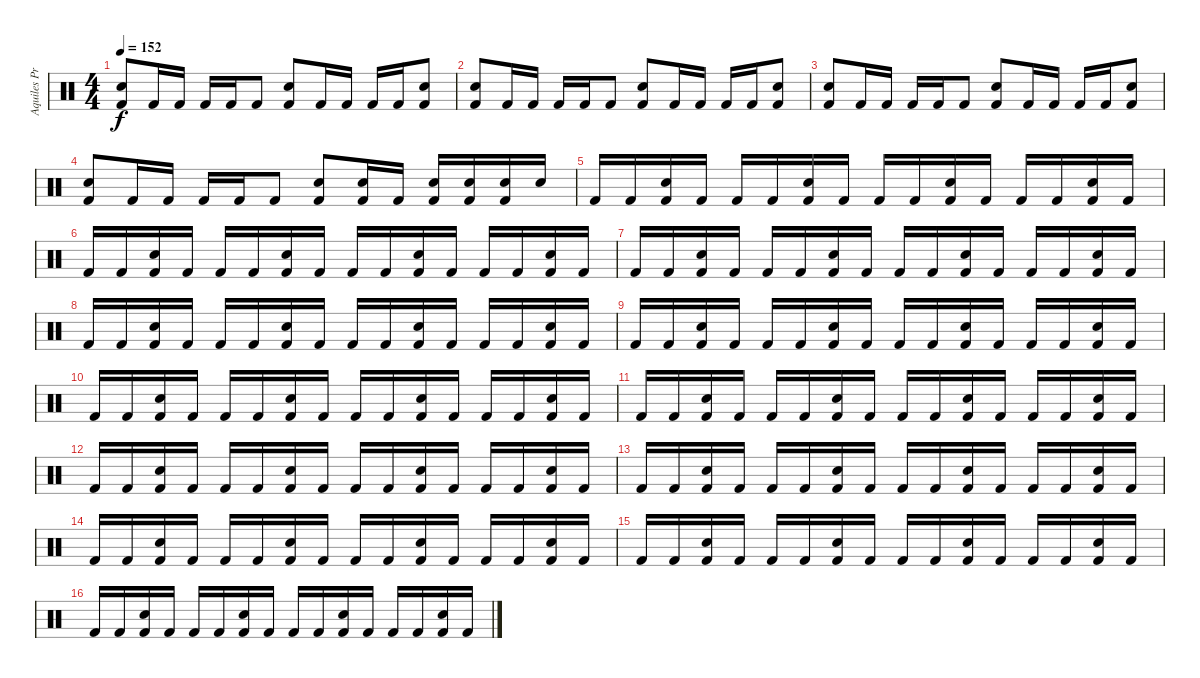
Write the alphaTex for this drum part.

\track ("Aquiles Priester" "Aquiles Pr") {instrument percussion}
\staff {score}
\articulation defaults
\ts (4 4)
\tempo 152
\clef neutral
\ks c
("Electric Snare (hit)" "Kick (hit) 2").8{dy f} "Kick (hit) 2".16 "Kick (hit) 2".16 "Kick (hit) 2".16 "Kick (hit) 2".16 "Kick (hit) 2".8 ("Electric Snare (hit)" "Kick (hit) 2").8 "Kick (hit) 2".16 "Kick (hit) 2".16 "Kick (hit) 2".16 "Kick (hit) 2".16 ("Electric Snare (hit)" "Kick (hit) 2").8 |
("Electric Snare (hit)" "Kick (hit) 2").8 "Kick (hit) 2".16 "Kick (hit) 2".16 "Kick (hit) 2".16 "Kick (hit) 2".16 "Kick (hit) 2".8 ("Electric Snare (hit)" "Kick (hit) 2").8 "Kick (hit) 2".16 "Kick (hit) 2".16 "Kick (hit) 2".16 "Kick (hit) 2".16 ("Electric Snare (hit)" "Kick (hit) 2").8 |
("Electric Snare (hit)" "Kick (hit) 2").8 "Kick (hit) 2".16 "Kick (hit) 2".16 "Kick (hit) 2".16 "Kick (hit) 2".16 "Kick (hit) 2".8 ("Electric Snare (hit)" "Kick (hit) 2").8 "Kick (hit) 2".16 "Kick (hit) 2".16 "Kick (hit) 2".16 "Kick (hit) 2".16 ("Electric Snare (hit)" "Kick (hit) 2").8 |
("Electric Snare (hit)" "Kick (hit) 2").8 "Kick (hit) 2".16 "Kick (hit) 2".16 "Kick (hit) 2".16 "Kick (hit) 2".16 "Kick (hit) 2".8 ("Electric Snare (hit)" "Kick (hit) 2").8 ("Electric Snare (hit)" "Kick (hit) 2").16 "Kick (hit) 2".16 ("Electric Snare (hit)" "Kick (hit) 2").16 ("Electric Snare (hit)" "Kick (hit) 2").16 ("Electric Snare (hit)" "Kick (hit) 2").16 "Electric Snare (hit)".16 |
"Kick (hit) 2".16 "Kick (hit) 2".16 ("Electric Snare (hit)" "Kick (hit) 2").16 "Kick (hit) 2".16 "Kick (hit) 2".16 "Kick (hit) 2".16 ("Electric Snare (hit)" "Kick (hit) 2").16 "Kick (hit) 2".16 "Kick (hit) 2".16 "Kick (hit) 2".16 ("Electric Snare (hit)" "Kick (hit) 2").16 "Kick (hit) 2".16 "Kick (hit) 2".16 "Kick (hit) 2".16 ("Electric Snare (hit)" "Kick (hit) 2").16 "Kick (hit) 2".16 |
"Kick (hit) 2".16 "Kick (hit) 2".16 ("Electric Snare (hit)" "Kick (hit) 2").16 "Kick (hit) 2".16 "Kick (hit) 2".16 "Kick (hit) 2".16 ("Electric Snare (hit)" "Kick (hit) 2").16 "Kick (hit) 2".16 "Kick (hit) 2".16 "Kick (hit) 2".16 ("Electric Snare (hit)" "Kick (hit) 2").16 "Kick (hit) 2".16 "Kick (hit) 2".16 "Kick (hit) 2".16 ("Electric Snare (hit)" "Kick (hit) 2").16 "Kick (hit) 2".16 |
"Kick (hit) 2".16 "Kick (hit) 2".16 ("Electric Snare (hit)" "Kick (hit) 2").16 "Kick (hit) 2".16 "Kick (hit) 2".16 "Kick (hit) 2".16 ("Electric Snare (hit)" "Kick (hit) 2").16 "Kick (hit) 2".16 "Kick (hit) 2".16 "Kick (hit) 2".16 ("Electric Snare (hit)" "Kick (hit) 2").16 "Kick (hit) 2".16 "Kick (hit) 2".16 "Kick (hit) 2".16 ("Electric Snare (hit)" "Kick (hit) 2").16 "Kick (hit) 2".16 |
"Kick (hit) 2".16 "Kick (hit) 2".16 ("Electric Snare (hit)" "Kick (hit) 2").16 "Kick (hit) 2".16 "Kick (hit) 2".16 "Kick (hit) 2".16 ("Electric Snare (hit)" "Kick (hit) 2").16 "Kick (hit) 2".16 "Kick (hit) 2".16 "Kick (hit) 2".16 ("Electric Snare (hit)" "Kick (hit) 2").16 "Kick (hit) 2".16 "Kick (hit) 2".16 "Kick (hit) 2".16 ("Electric Snare (hit)" "Kick (hit) 2").16 "Kick (hit) 2".16 |
"Kick (hit) 2".16 "Kick (hit) 2".16 ("Electric Snare (hit)" "Kick (hit) 2").16 "Kick (hit) 2".16 "Kick (hit) 2".16 "Kick (hit) 2".16 ("Electric Snare (hit)" "Kick (hit) 2").16 "Kick (hit) 2".16 "Kick (hit) 2".16 "Kick (hit) 2".16 ("Electric Snare (hit)" "Kick (hit) 2").16 "Kick (hit) 2".16 "Kick (hit) 2".16 "Kick (hit) 2".16 ("Electric Snare (hit)" "Kick (hit) 2").16 "Kick (hit) 2".16 |
"Kick (hit) 2".16 "Kick (hit) 2".16 ("Electric Snare (hit)" "Kick (hit) 2").16 "Kick (hit) 2".16 "Kick (hit) 2".16 "Kick (hit) 2".16 ("Electric Snare (hit)" "Kick (hit) 2").16 "Kick (hit) 2".16 "Kick (hit) 2".16 "Kick (hit) 2".16 ("Electric Snare (hit)" "Kick (hit) 2").16 "Kick (hit) 2".16 "Kick (hit) 2".16 "Kick (hit) 2".16 ("Electric Snare (hit)" "Kick (hit) 2").16 "Kick (hit) 2".16 |
"Kick (hit) 2".16 "Kick (hit) 2".16 ("Electric Snare (hit)" "Kick (hit) 2").16 "Kick (hit) 2".16 "Kick (hit) 2".16 "Kick (hit) 2".16 ("Electric Snare (hit)" "Kick (hit) 2").16 "Kick (hit) 2".16 "Kick (hit) 2".16 "Kick (hit) 2".16 ("Electric Snare (hit)" "Kick (hit) 2").16 "Kick (hit) 2".16 "Kick (hit) 2".16 "Kick (hit) 2".16 ("Electric Snare (hit)" "Kick (hit) 2").16 "Kick (hit) 2".16 |
"Kick (hit) 2".16 "Kick (hit) 2".16 ("Electric Snare (hit)" "Kick (hit) 2").16 "Kick (hit) 2".16 "Kick (hit) 2".16 "Kick (hit) 2".16 ("Electric Snare (hit)" "Kick (hit) 2").16 "Kick (hit) 2".16 "Kick (hit) 2".16 "Kick (hit) 2".16 ("Electric Snare (hit)" "Kick (hit) 2").16 "Kick (hit) 2".16 "Kick (hit) 2".16 "Kick (hit) 2".16 ("Electric Snare (hit)" "Kick (hit) 2").16 "Kick (hit) 2".16 |
"Kick (hit) 2".16 "Kick (hit) 2".16 ("Electric Snare (hit)" "Kick (hit) 2").16 "Kick (hit) 2".16 "Kick (hit) 2".16 "Kick (hit) 2".16 ("Electric Snare (hit)" "Kick (hit) 2").16 "Kick (hit) 2".16 "Kick (hit) 2".16 "Kick (hit) 2".16 ("Electric Snare (hit)" "Kick (hit) 2").16 "Kick (hit) 2".16 "Kick (hit) 2".16 "Kick (hit) 2".16 ("Electric Snare (hit)" "Kick (hit) 2").16 "Kick (hit) 2".16 |
"Kick (hit) 2".16 "Kick (hit) 2".16 ("Electric Snare (hit)" "Kick (hit) 2").16 "Kick (hit) 2".16 "Kick (hit) 2".16 "Kick (hit) 2".16 ("Electric Snare (hit)" "Kick (hit) 2").16 "Kick (hit) 2".16 "Kick (hit) 2".16 "Kick (hit) 2".16 ("Electric Snare (hit)" "Kick (hit) 2").16 "Kick (hit) 2".16 "Kick (hit) 2".16 "Kick (hit) 2".16 ("Electric Snare (hit)" "Kick (hit) 2").16 "Kick (hit) 2".16 |
"Kick (hit) 2".16 "Kick (hit) 2".16 ("Electric Snare (hit)" "Kick (hit) 2").16 "Kick (hit) 2".16 "Kick (hit) 2".16 "Kick (hit) 2".16 ("Electric Snare (hit)" "Kick (hit) 2").16 "Kick (hit) 2".16 "Kick (hit) 2".16 "Kick (hit) 2".16 ("Electric Snare (hit)" "Kick (hit) 2").16 "Kick (hit) 2".16 "Kick (hit) 2".16 "Kick (hit) 2".16 ("Electric Snare (hit)" "Kick (hit) 2").16 "Kick (hit) 2".16 |
"Kick (hit) 2".16 "Kick (hit) 2".16 ("Electric Snare (hit)" "Kick (hit) 2").16 "Kick (hit) 2".16 "Kick (hit) 2".16 "Kick (hit) 2".16 ("Electric Snare (hit)" "Kick (hit) 2").16 "Kick (hit) 2".16 "Kick (hit) 2".16 "Kick (hit) 2".16 ("Electric Snare (hit)" "Kick (hit) 2").16 "Kick (hit) 2".16 "Kick (hit) 2".16 "Kick (hit) 2".16 ("Electric Snare (hit)" "Kick (hit) 2").16 "Kick (hit) 2".16
